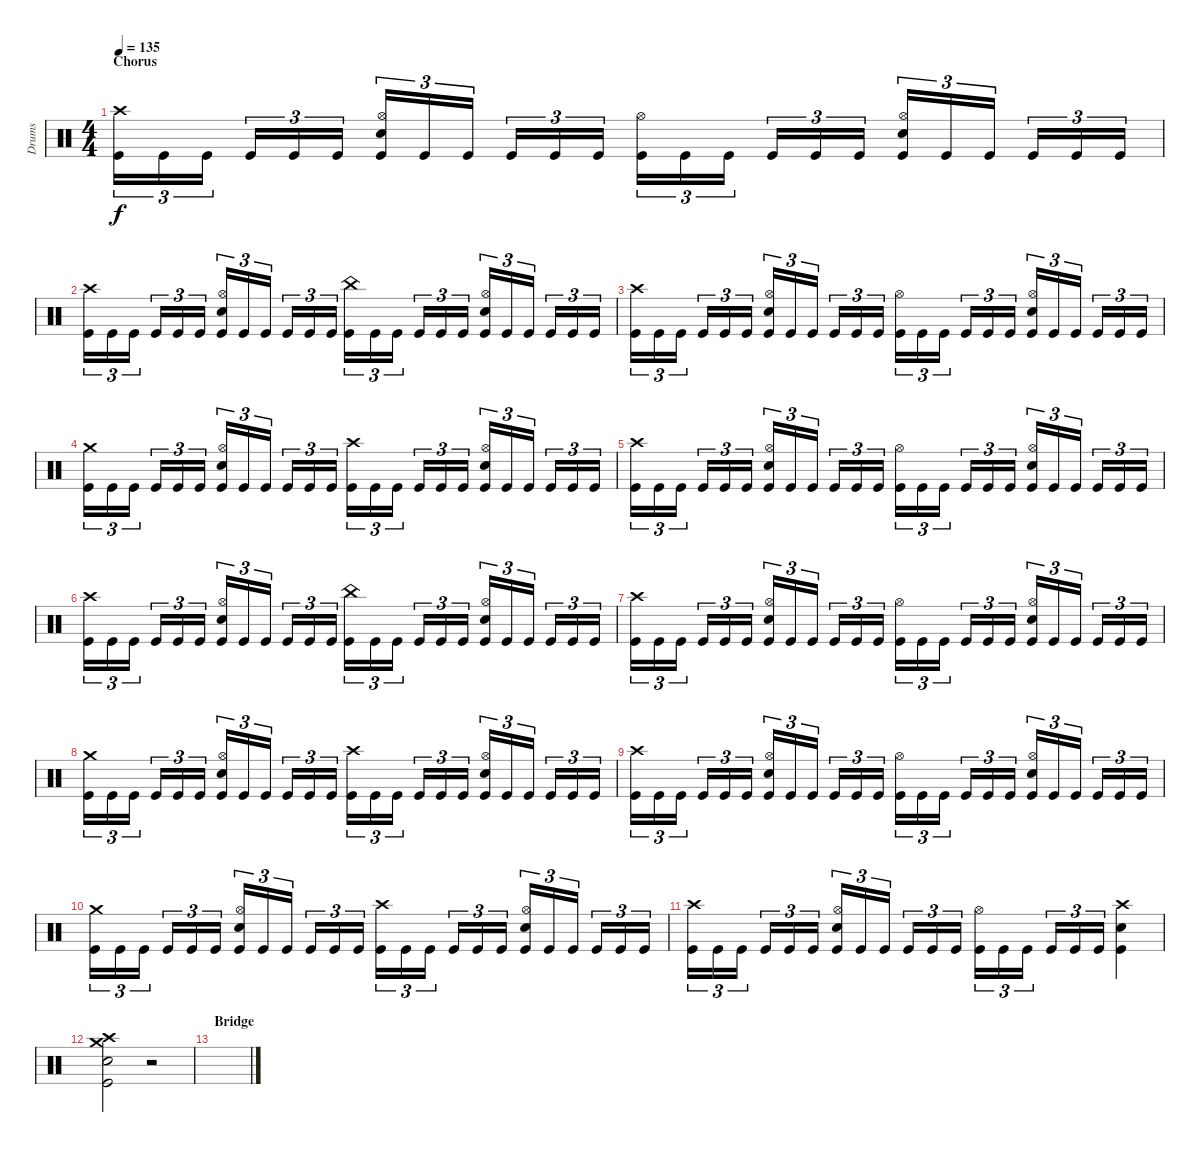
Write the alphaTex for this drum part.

\track ("Drums" "Drums") {instrument percussion}
\staff {score}
\articulation defaults
\ts (4 4)
\section ("" "Chorus")
\tempo 135
\clef neutral
\ks c
("Crash high (hit)" "Kick (hit)").16{tu (3 2) dy f} "Kick (hit)".16{tu (3 2)} "Kick (hit)".16{tu (3 2)} "Kick (hit)".16{tu (3 2)} "Kick (hit)".16{tu (3 2)} "Kick (hit)".16{tu (3 2)} ("Hi-Hat (open)" "Snare (hit) 2" "Kick (hit)").16{tu (3 2)} "Kick (hit)".16{tu (3 2)} "Kick (hit)".16{tu (3 2)} "Kick (hit)".16{tu (3 2)} "Kick (hit)".16{tu (3 2)} "Kick (hit)".16{tu (3 2)} ("Hi-Hat (open)" "Kick (hit)").16{tu (3 2)} "Kick (hit)".16{tu (3 2)} "Kick (hit)".16{tu (3 2)} "Kick (hit)".16{tu (3 2)} "Kick (hit)".16{tu (3 2)} "Kick (hit)".16{tu (3 2)} ("Hi-Hat (open)" "Snare (hit) 2" "Kick (hit)").16{tu (3 2)} "Kick (hit)".16{tu (3 2)} "Kick (hit)".16{tu (3 2)} "Kick (hit)".16{tu (3 2)} "Kick (hit)".16{tu (3 2)} "Kick (hit)".16{tu (3 2)} |
("Crash high (hit)" "Kick (hit)").16{tu (3 2)} "Kick (hit)".16{tu (3 2)} "Kick (hit)".16{tu (3 2)} "Kick (hit)".16{tu (3 2)} "Kick (hit)".16{tu (3 2)} "Kick (hit)".16{tu (3 2)} ("Hi-Hat (open)" "Snare (hit) 2" "Kick (hit)").16{tu (3 2)} "Kick (hit)".16{tu (3 2)} "Kick (hit)".16{tu (3 2)} "Kick (hit)".16{tu (3 2)} "Kick (hit)".16{tu (3 2)} "Kick (hit)".16{tu (3 2)} ("China (hit)" "Kick (hit)").16{tu (3 2)} "Kick (hit)".16{tu (3 2)} "Kick (hit)".16{tu (3 2)} "Kick (hit)".16{tu (3 2)} "Kick (hit)".16{tu (3 2)} "Kick (hit)".16{tu (3 2)} ("Hi-Hat (open)" "Snare (hit) 2" "Kick (hit)").16{tu (3 2)} "Kick (hit)".16{tu (3 2)} "Kick (hit)".16{tu (3 2)} "Kick (hit)".16{tu (3 2)} "Kick (hit)".16{tu (3 2)} "Kick (hit)".16{tu (3 2)} |
("Crash high (hit)" "Kick (hit)").16{tu (3 2)} "Kick (hit)".16{tu (3 2)} "Kick (hit)".16{tu (3 2)} "Kick (hit)".16{tu (3 2)} "Kick (hit)".16{tu (3 2)} "Kick (hit)".16{tu (3 2)} ("Hi-Hat (open)" "Snare (hit) 2" "Kick (hit)").16{tu (3 2)} "Kick (hit)".16{tu (3 2)} "Kick (hit)".16{tu (3 2)} "Kick (hit)".16{tu (3 2)} "Kick (hit)".16{tu (3 2)} "Kick (hit)".16{tu (3 2)} ("Hi-Hat (open)" "Kick (hit)").16{tu (3 2)} "Kick (hit)".16{tu (3 2)} "Kick (hit)".16{tu (3 2)} "Kick (hit)".16{tu (3 2)} "Kick (hit)".16{tu (3 2)} "Kick (hit)".16{tu (3 2)} ("Hi-Hat (open)" "Snare (hit) 2" "Kick (hit)").16{tu (3 2)} "Kick (hit)".16{tu (3 2)} "Kick (hit)".16{tu (3 2)} "Kick (hit)".16{tu (3 2)} "Kick (hit)".16{tu (3 2)} "Kick (hit)".16{tu (3 2)} |
("Crash medium (hit)" "Kick (hit)").16{tu (3 2)} "Kick (hit)".16{tu (3 2)} "Kick (hit)".16{tu (3 2)} "Kick (hit)".16{tu (3 2)} "Kick (hit)".16{tu (3 2)} "Kick (hit)".16{tu (3 2)} ("Hi-Hat (open)" "Snare (hit) 2" "Kick (hit)").16{tu (3 2)} "Kick (hit)".16{tu (3 2)} "Kick (hit)".16{tu (3 2)} "Kick (hit)".16{tu (3 2)} "Kick (hit)".16{tu (3 2)} "Kick (hit)".16{tu (3 2)} ("Crash high (hit)" "Kick (hit)").16{tu (3 2)} "Kick (hit)".16{tu (3 2)} "Kick (hit)".16{tu (3 2)} "Kick (hit)".16{tu (3 2)} "Kick (hit)".16{tu (3 2)} "Kick (hit)".16{tu (3 2)} ("Hi-Hat (open)" "Snare (hit) 2" "Kick (hit)").16{tu (3 2)} "Kick (hit)".16{tu (3 2)} "Kick (hit)".16{tu (3 2)} "Kick (hit)".16{tu (3 2)} "Kick (hit)".16{tu (3 2)} "Kick (hit)".16{tu (3 2)} |
("Crash high (hit)" "Kick (hit)").16{tu (3 2)} "Kick (hit)".16{tu (3 2)} "Kick (hit)".16{tu (3 2)} "Kick (hit)".16{tu (3 2)} "Kick (hit)".16{tu (3 2)} "Kick (hit)".16{tu (3 2)} ("Hi-Hat (open)" "Snare (hit) 2" "Kick (hit)").16{tu (3 2)} "Kick (hit)".16{tu (3 2)} "Kick (hit)".16{tu (3 2)} "Kick (hit)".16{tu (3 2)} "Kick (hit)".16{tu (3 2)} "Kick (hit)".16{tu (3 2)} ("Hi-Hat (open)" "Kick (hit)").16{tu (3 2)} "Kick (hit)".16{tu (3 2)} "Kick (hit)".16{tu (3 2)} "Kick (hit)".16{tu (3 2)} "Kick (hit)".16{tu (3 2)} "Kick (hit)".16{tu (3 2)} ("Hi-Hat (open)" "Snare (hit) 2" "Kick (hit)").16{tu (3 2)} "Kick (hit)".16{tu (3 2)} "Kick (hit)".16{tu (3 2)} "Kick (hit)".16{tu (3 2)} "Kick (hit)".16{tu (3 2)} "Kick (hit)".16{tu (3 2)} |
("Crash high (hit)" "Kick (hit)").16{tu (3 2)} "Kick (hit)".16{tu (3 2)} "Kick (hit)".16{tu (3 2)} "Kick (hit)".16{tu (3 2)} "Kick (hit)".16{tu (3 2)} "Kick (hit)".16{tu (3 2)} ("Hi-Hat (open)" "Snare (hit) 2" "Kick (hit)").16{tu (3 2)} "Kick (hit)".16{tu (3 2)} "Kick (hit)".16{tu (3 2)} "Kick (hit)".16{tu (3 2)} "Kick (hit)".16{tu (3 2)} "Kick (hit)".16{tu (3 2)} ("China (hit)" "Kick (hit)").16{tu (3 2)} "Kick (hit)".16{tu (3 2)} "Kick (hit)".16{tu (3 2)} "Kick (hit)".16{tu (3 2)} "Kick (hit)".16{tu (3 2)} "Kick (hit)".16{tu (3 2)} ("Hi-Hat (open)" "Snare (hit) 2" "Kick (hit)").16{tu (3 2)} "Kick (hit)".16{tu (3 2)} "Kick (hit)".16{tu (3 2)} "Kick (hit)".16{tu (3 2)} "Kick (hit)".16{tu (3 2)} "Kick (hit)".16{tu (3 2)} |
("Crash high (hit)" "Kick (hit)").16{tu (3 2)} "Kick (hit)".16{tu (3 2)} "Kick (hit)".16{tu (3 2)} "Kick (hit)".16{tu (3 2)} "Kick (hit)".16{tu (3 2)} "Kick (hit)".16{tu (3 2)} ("Hi-Hat (open)" "Snare (hit) 2" "Kick (hit)").16{tu (3 2)} "Kick (hit)".16{tu (3 2)} "Kick (hit)".16{tu (3 2)} "Kick (hit)".16{tu (3 2)} "Kick (hit)".16{tu (3 2)} "Kick (hit)".16{tu (3 2)} ("Hi-Hat (open)" "Kick (hit)").16{tu (3 2)} "Kick (hit)".16{tu (3 2)} "Kick (hit)".16{tu (3 2)} "Kick (hit)".16{tu (3 2)} "Kick (hit)".16{tu (3 2)} "Kick (hit)".16{tu (3 2)} ("Hi-Hat (open)" "Snare (hit) 2" "Kick (hit)").16{tu (3 2)} "Kick (hit)".16{tu (3 2)} "Kick (hit)".16{tu (3 2)} "Kick (hit)".16{tu (3 2)} "Kick (hit)".16{tu (3 2)} "Kick (hit)".16{tu (3 2)} |
("Crash medium (hit)" "Kick (hit)").16{tu (3 2)} "Kick (hit)".16{tu (3 2)} "Kick (hit)".16{tu (3 2)} "Kick (hit)".16{tu (3 2)} "Kick (hit)".16{tu (3 2)} "Kick (hit)".16{tu (3 2)} ("Hi-Hat (open)" "Snare (hit) 2" "Kick (hit)").16{tu (3 2)} "Kick (hit)".16{tu (3 2)} "Kick (hit)".16{tu (3 2)} "Kick (hit)".16{tu (3 2)} "Kick (hit)".16{tu (3 2)} "Kick (hit)".16{tu (3 2)} ("Crash high (hit)" "Kick (hit)").16{tu (3 2)} "Kick (hit)".16{tu (3 2)} "Kick (hit)".16{tu (3 2)} "Kick (hit)".16{tu (3 2)} "Kick (hit)".16{tu (3 2)} "Kick (hit)".16{tu (3 2)} ("Hi-Hat (open)" "Snare (hit) 2" "Kick (hit)").16{tu (3 2)} "Kick (hit)".16{tu (3 2)} "Kick (hit)".16{tu (3 2)} "Kick (hit)".16{tu (3 2)} "Kick (hit)".16{tu (3 2)} "Kick (hit)".16{tu (3 2)} |
("Crash high (hit)" "Kick (hit)").16{tu (3 2)} "Kick (hit)".16{tu (3 2)} "Kick (hit)".16{tu (3 2)} "Kick (hit)".16{tu (3 2)} "Kick (hit)".16{tu (3 2)} "Kick (hit)".16{tu (3 2)} ("Hi-Hat (open)" "Snare (hit) 2" "Kick (hit)").16{tu (3 2)} "Kick (hit)".16{tu (3 2)} "Kick (hit)".16{tu (3 2)} "Kick (hit)".16{tu (3 2)} "Kick (hit)".16{tu (3 2)} "Kick (hit)".16{tu (3 2)} ("Hi-Hat (open)" "Kick (hit)").16{tu (3 2)} "Kick (hit)".16{tu (3 2)} "Kick (hit)".16{tu (3 2)} "Kick (hit)".16{tu (3 2)} "Kick (hit)".16{tu (3 2)} "Kick (hit)".16{tu (3 2)} ("Hi-Hat (open)" "Snare (hit) 2" "Kick (hit)").16{tu (3 2)} "Kick (hit)".16{tu (3 2)} "Kick (hit)".16{tu (3 2)} "Kick (hit)".16{tu (3 2)} "Kick (hit)".16{tu (3 2)} "Kick (hit)".16{tu (3 2)} |
("Crash medium (hit)" "Kick (hit)").16{tu (3 2)} "Kick (hit)".16{tu (3 2)} "Kick (hit)".16{tu (3 2)} "Kick (hit)".16{tu (3 2)} "Kick (hit)".16{tu (3 2)} "Kick (hit)".16{tu (3 2)} ("Hi-Hat (open)" "Snare (hit) 2" "Kick (hit)").16{tu (3 2)} "Kick (hit)".16{tu (3 2)} "Kick (hit)".16{tu (3 2)} "Kick (hit)".16{tu (3 2)} "Kick (hit)".16{tu (3 2)} "Kick (hit)".16{tu (3 2)} ("Crash high (hit)" "Kick (hit)").16{tu (3 2)} "Kick (hit)".16{tu (3 2)} "Kick (hit)".16{tu (3 2)} "Kick (hit)".16{tu (3 2)} "Kick (hit)".16{tu (3 2)} "Kick (hit)".16{tu (3 2)} ("Hi-Hat (open)" "Snare (hit) 2" "Kick (hit)").16{tu (3 2)} "Kick (hit)".16{tu (3 2)} "Kick (hit)".16{tu (3 2)} "Kick (hit)".16{tu (3 2)} "Kick (hit)".16{tu (3 2)} "Kick (hit)".16{tu (3 2)} |
("Crash high (hit)" "Kick (hit)").16{tu (3 2)} "Kick (hit)".16{tu (3 2)} "Kick (hit)".16{tu (3 2)} "Kick (hit)".16{tu (3 2)} "Kick (hit)".16{tu (3 2)} "Kick (hit)".16{tu (3 2)} ("Hi-Hat (open)" "Snare (hit) 2" "Kick (hit)").16{tu (3 2)} "Kick (hit)".16{tu (3 2)} "Kick (hit)".16{tu (3 2)} "Kick (hit)".16{tu (3 2)} "Kick (hit)".16{tu (3 2)} "Kick (hit)".16{tu (3 2)} ("Hi-Hat (open)" "Kick (hit)").16{tu (3 2)} "Kick (hit)".16{tu (3 2)} "Kick (hit)".16{tu (3 2)} "Kick (hit)".16{tu (3 2)} "Kick (hit)".16{tu (3 2)} "Kick (hit)".16{tu (3 2)} ("Crash high (hit)" "Snare (hit) 2" "Kick (hit)").4 |
("Crash high (hit)" "Crash medium (hit)" "Snare (hit) 2" "Kick (hit)").2 r.2 |
\section ("" "Bridge")
